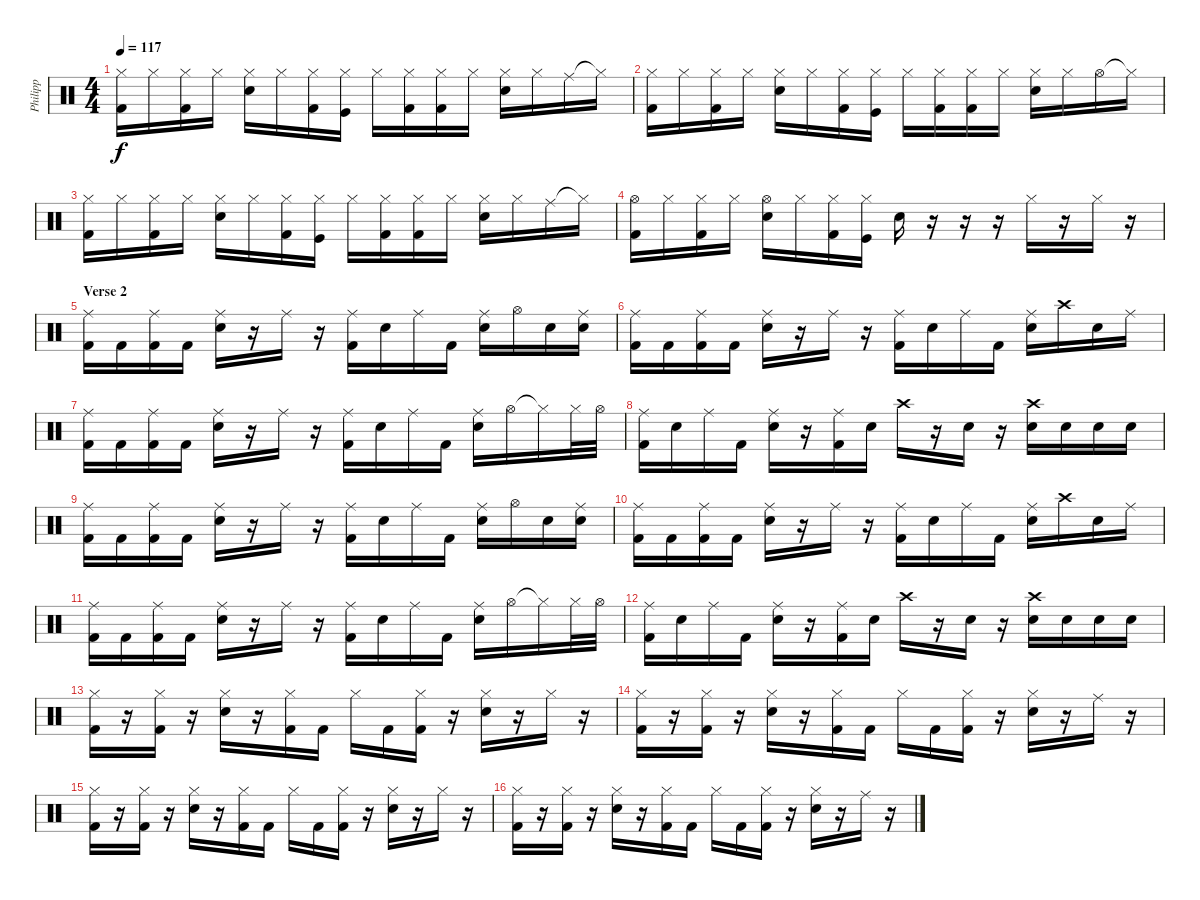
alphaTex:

\track ("Philipp" "Philipp") {instrument percussion}
\staff {score}
\articulation defaults
\ts (4 4)
\tempo 117
\clef neutral
\ks c
("Hi-Hat (closed)" "Kick (hit) 2").16{dy f} "Hi-Hat (closed)".16 ("Hi-Hat (closed)" "Kick (hit) 2").16 "Hi-Hat (closed)".16 ("Hi-Hat (closed)" "Electric Snare (hit)").16 "Hi-Hat (closed)".16 ("Hi-Hat (closed)" "Kick (hit) 2").16 ("Hi-Hat (closed)" "Kick (hit)").16 "Hi-Hat (closed)".16 ("Hi-Hat (closed)" "Kick (hit) 2").16 ("Hi-Hat (closed)" "Kick (hit) 2").16 "Hi-Hat (closed)".16 ("Hi-Hat (closed)" "Electric Snare (hit)").16 "Hi-Hat (closed)".16 "Ride (middle)".16 "Hi-Hat (closed)"{t}.16 |
("Hi-Hat (closed)" "Kick (hit) 2").16 "Hi-Hat (closed)".16 ("Hi-Hat (closed)" "Kick (hit) 2").16 "Hi-Hat (closed)".16 ("Hi-Hat (closed)" "Electric Snare (hit)").16 "Hi-Hat (closed)".16 ("Hi-Hat (closed)" "Kick (hit) 2").16 ("Hi-Hat (closed)" "Kick (hit)").16 "Hi-Hat (closed)".16 ("Hi-Hat (closed)" "Kick (hit) 2").16 ("Hi-Hat (closed)" "Kick (hit) 2").16 "Hi-Hat (closed)".16 ("Hi-Hat (closed)" "Electric Snare (hit)").16 "Hi-Hat (closed)".16 "Hi-Hat (open)".16 "Hi-Hat (closed)"{t}.16 |
("Hi-Hat (closed)" "Kick (hit) 2").16 "Hi-Hat (closed)".16 ("Hi-Hat (closed)" "Kick (hit) 2").16 "Hi-Hat (closed)".16 ("Hi-Hat (closed)" "Electric Snare (hit)").16 "Hi-Hat (closed)".16 ("Hi-Hat (closed)" "Kick (hit) 2").16 ("Hi-Hat (closed)" "Kick (hit)").16 "Hi-Hat (closed)".16 ("Hi-Hat (closed)" "Kick (hit) 2").16 ("Hi-Hat (closed)" "Kick (hit) 2").16 "Hi-Hat (closed)".16 ("Hi-Hat (closed)" "Electric Snare (hit)").16 "Hi-Hat (closed)".16 "Ride (middle)".16 "Hi-Hat (closed)"{t}.16 |
("Hi-Hat (open)" "Kick (hit) 2").16 "Hi-Hat (closed)".16 ("Hi-Hat (closed)" "Kick (hit) 2").16 "Hi-Hat (closed)".16 ("Hi-Hat (open)" "Electric Snare (hit)").16 "Hi-Hat (closed)".16 ("Hi-Hat (closed)" "Kick (hit) 2").16 ("Hi-Hat (closed)" "Kick (hit)").16 "Electric Snare (hit)".16 r.16 r.16 r.16 "Hi-Hat (closed)".16 r.16 "Hi-Hat (closed)".16 r.16 |
\section ("" "Verse 2")
("Ride (middle)" "Kick (hit) 2").16 "Kick (hit) 2".16 ("Ride (middle)" "Kick (hit) 2").16 "Kick (hit) 2".16 ("Ride (middle)" "Electric Snare (hit)").16 r.16 "Ride (middle)".16 r.16 ("Ride (middle)" "Kick (hit) 2").16 "Electric Snare (hit)".16 "Ride (middle)".16 "Kick (hit) 2".16 ("Ride (middle)" "Electric Snare (hit)").16 "Hi-Hat (open)".16 "Electric Snare (hit)".16 ("Ride (middle)" "Electric Snare (hit)").16 |
("Ride (middle)" "Kick (hit) 2").16 "Kick (hit) 2".16 ("Ride (middle)" "Kick (hit) 2").16 "Kick (hit) 2".16 ("Ride (middle)" "Electric Snare (hit)").16 r.16 "Ride (middle)".16 r.16 ("Ride (middle)" "Kick (hit) 2").16 "Electric Snare (hit)".16 "Ride (middle)".16 "Kick (hit) 2".16 ("Ride (middle)" "Electric Snare (hit)").16 "Crash high (hit)".16 "Electric Snare (hit)".16 "Ride (middle)".16 |
("Ride (middle)" "Kick (hit) 2").16 "Kick (hit) 2".16 ("Ride (middle)" "Kick (hit) 2").16 "Kick (hit) 2".16 ("Ride (middle)" "Electric Snare (hit)").16 r.16 "Ride (middle)".16 r.16 ("Ride (middle)" "Kick (hit) 2").16 "Electric Snare (hit)".16 "Ride (middle)".16 "Kick (hit) 2".16 ("Ride (middle)" "Electric Snare (hit)").16 "Hi-Hat (open)".16 "Hi-Hat (closed)"{t}.16 "Hi-Hat (closed)".32 "Hi-Hat (open)".32 |
("Ride (middle)" "Kick (hit) 2").16 "Electric Snare (hit)".16 "Ride (middle)".16 "Kick (hit) 2".16 ("Ride (middle)" "Electric Snare (hit)").16 r.16 ("Ride (middle)" "Kick (hit) 2").16 "Electric Snare (hit)".16 "Crash high (hit)".16 r.16 "Electric Snare (hit)".16 r.16 ("Crash high (hit)" "Electric Snare (hit)").16 "Electric Snare (hit)".16 "Electric Snare (hit)".16 "Electric Snare (hit)".16 |
("Ride (middle)" "Kick (hit) 2").16 "Kick (hit) 2".16 ("Ride (middle)" "Kick (hit) 2").16 "Kick (hit) 2".16 ("Ride (middle)" "Electric Snare (hit)").16 r.16 "Ride (middle)".16 r.16 ("Ride (middle)" "Kick (hit) 2").16 "Electric Snare (hit)".16 "Ride (middle)".16 "Kick (hit) 2".16 ("Ride (middle)" "Electric Snare (hit)").16 "Hi-Hat (open)".16 "Electric Snare (hit)".16 ("Ride (middle)" "Electric Snare (hit)").16 |
("Ride (middle)" "Kick (hit) 2").16 "Kick (hit) 2".16 ("Ride (middle)" "Kick (hit) 2").16 "Kick (hit) 2".16 ("Ride (middle)" "Electric Snare (hit)").16 r.16 "Ride (middle)".16 r.16 ("Ride (middle)" "Kick (hit) 2").16 "Electric Snare (hit)".16 "Ride (middle)".16 "Kick (hit) 2".16 ("Ride (middle)" "Electric Snare (hit)").16 "Crash high (hit)".16 "Electric Snare (hit)".16 "Ride (middle)".16 |
("Ride (middle)" "Kick (hit) 2").16 "Kick (hit) 2".16 ("Ride (middle)" "Kick (hit) 2").16 "Kick (hit) 2".16 ("Ride (middle)" "Electric Snare (hit)").16 r.16 "Ride (middle)".16 r.16 ("Ride (middle)" "Kick (hit) 2").16 "Electric Snare (hit)".16 "Ride (middle)".16 "Kick (hit) 2".16 ("Ride (middle)" "Electric Snare (hit)").16 "Hi-Hat (open)".16 "Hi-Hat (closed)"{t}.16 "Hi-Hat (closed)".32 "Hi-Hat (open)".32 |
("Ride (middle)" "Kick (hit) 2").16 "Electric Snare (hit)".16 "Ride (middle)".16 "Kick (hit) 2".16 ("Ride (middle)" "Electric Snare (hit)").16 r.16 ("Ride (middle)" "Kick (hit) 2").16 "Electric Snare (hit)".16 "Crash high (hit)".16 r.16 "Electric Snare (hit)".16 r.16 ("Crash high (hit)" "Electric Snare (hit)").16 "Electric Snare (hit)".16 "Electric Snare (hit)".16 "Electric Snare (hit)".16 |
("Hi-Hat (closed)" "Kick (hit) 2").16 r.16 ("Hi-Hat (closed)" "Kick (hit) 2").16 r.16 ("Hi-Hat (closed)" "Electric Snare (hit)").16 r.16 ("Hi-Hat (closed)" "Kick (hit) 2").16 "Kick (hit) 2".16 "Hi-Hat (closed)".16 "Kick (hit) 2".16 ("Hi-Hat (closed)" "Kick (hit) 2").16 r.16 ("Hi-Hat (closed)" "Electric Snare (hit)").16 r.16 "Hi-Hat (closed)".16 r.16 |
("Hi-Hat (closed)" "Kick (hit) 2").16 r.16 ("Hi-Hat (closed)" "Kick (hit) 2").16 r.16 ("Hi-Hat (closed)" "Electric Snare (hit)").16 r.16 ("Hi-Hat (closed)" "Kick (hit) 2").16 "Kick (hit) 2".16 "Hi-Hat (closed)".16 "Kick (hit) 2".16 ("Hi-Hat (closed)" "Kick (hit) 2").16 r.16 ("Hi-Hat (closed)" "Electric Snare (hit)").16 r.16 "Ride (middle)".16 r.16 |
("Hi-Hat (closed)" "Kick (hit) 2").16 r.16 ("Hi-Hat (closed)" "Kick (hit) 2").16 r.16 ("Hi-Hat (closed)" "Electric Snare (hit)").16 r.16 ("Hi-Hat (closed)" "Kick (hit) 2").16 "Kick (hit) 2".16 "Hi-Hat (closed)".16 "Kick (hit) 2".16 ("Hi-Hat (closed)" "Kick (hit) 2").16 r.16 ("Hi-Hat (closed)" "Electric Snare (hit)").16 r.16 "Hi-Hat (closed)".16 r.16 |
("Hi-Hat (closed)" "Kick (hit) 2").16 r.16 ("Hi-Hat (closed)" "Kick (hit) 2").16 r.16 ("Hi-Hat (closed)" "Electric Snare (hit)").16 r.16 ("Hi-Hat (closed)" "Kick (hit) 2").16 "Kick (hit) 2".16 "Hi-Hat (closed)".16 "Kick (hit) 2".16 ("Hi-Hat (closed)" "Kick (hit) 2").16 r.16 ("Hi-Hat (closed)" "Electric Snare (hit)").16 r.16 "Ride (middle)".16 r.16
